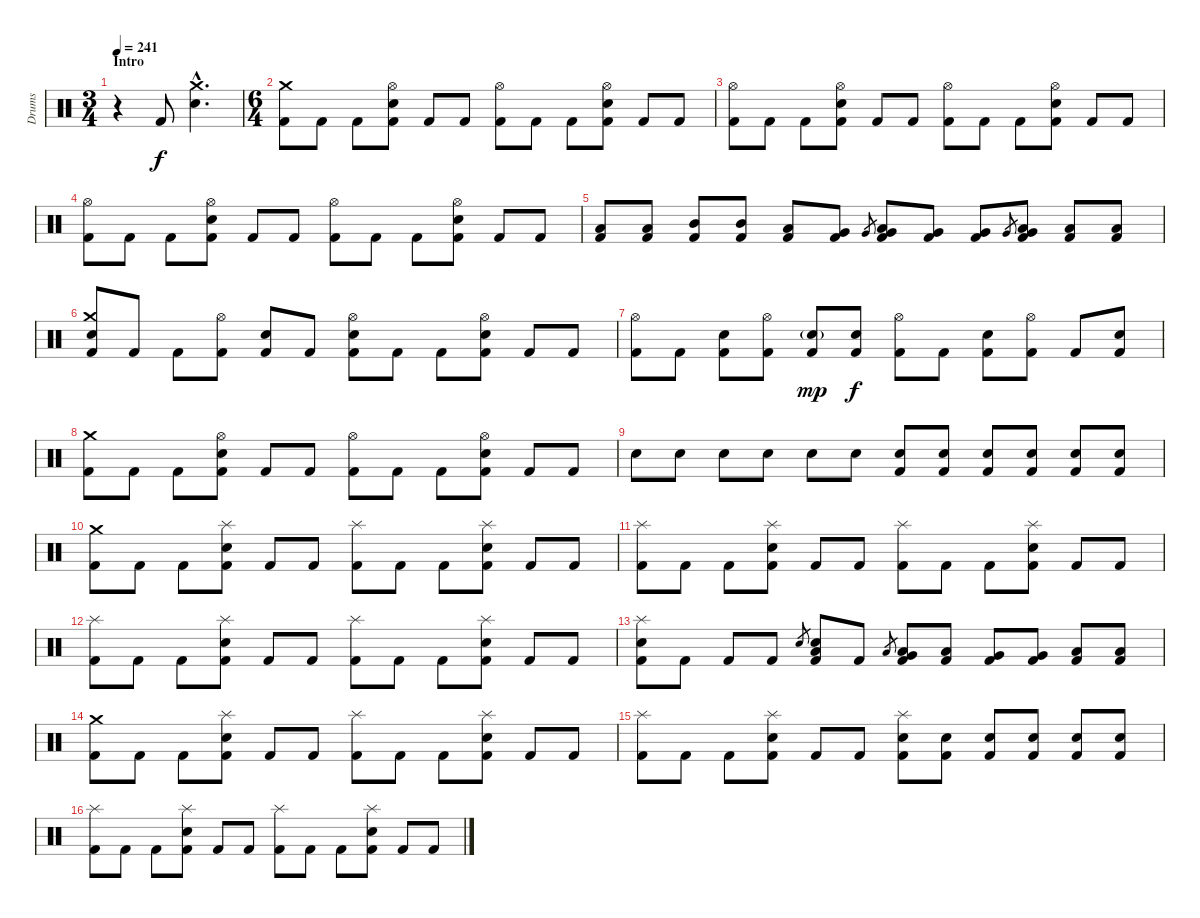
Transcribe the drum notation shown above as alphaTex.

\track ("Drums" "Drums") {instrument percussion}
\staff {score}
\articulation defaults
\ts (3 4)
\section ("" "Intro")
\tempo 241
\clef neutral
\ks c
r.4{dy f} "Kick (hit) 2".8 ("Crash medium (hit)"{hac} "Electric Snare (hit)"{hac}).4{d} |
\ts (6 4)
("Crash medium (hit)" "Kick (hit) 2").8 "Kick (hit) 2".8 "Kick (hit) 2".8 ("Hi-Hat (open)" "Electric Snare (hit)" "Kick (hit) 2").8 "Kick (hit) 2".8 "Kick (hit) 2".8 ("Hi-Hat (open)" "Kick (hit) 2").8 "Kick (hit) 2".8 "Kick (hit) 2".8 ("Hi-Hat (open)" "Electric Snare (hit)" "Kick (hit) 2").8 "Kick (hit) 2".8 "Kick (hit) 2".8 |
("Hi-Hat (open)" "Kick (hit) 2").8 "Kick (hit) 2".8 "Kick (hit) 2".8 ("Hi-Hat (open)" "Electric Snare (hit)" "Kick (hit) 2").8 "Kick (hit) 2".8 "Kick (hit) 2".8 ("Hi-Hat (open)" "Kick (hit) 2").8 "Kick (hit) 2".8 "Kick (hit) 2".8 ("Hi-Hat (open)" "Electric Snare (hit)" "Kick (hit) 2").8 "Kick (hit) 2".8 "Kick (hit) 2".8 |
("Hi-Hat (open)" "Kick (hit) 2").8 "Kick (hit) 2".8 "Kick (hit) 2".8 ("Hi-Hat (open)" "Electric Snare (hit)" "Kick (hit) 2").8 "Kick (hit) 2".8 "Kick (hit) 2".8 ("Hi-Hat (open)" "Kick (hit) 2").8 "Kick (hit) 2".8 "Kick (hit) 2".8 ("Hi-Hat (open)" "Electric Snare (hit)" "Kick (hit) 2").8 "Kick (hit) 2".8 "Kick (hit) 2".8 |
("Low Tom (hit)" "Kick (hit) 2").8 ("Low Tom (hit)" "Kick (hit) 2").8 ("Mid Tom (hit)" "Kick (hit) 2").8 ("Mid Tom (hit)" "Kick (hit) 2").8 ("Low Tom (hit)" "Kick (hit) 2").8 ("Very Low Tom (hit)" "Kick (hit) 2").8 "Very Low Tom (hit)".8{gr} ("Very Low Tom (hit)" "Low Tom (hit)" "Kick (hit) 2").8 ("Very Low Tom (hit)" "Kick (hit) 2").8 ("Very Low Tom (hit)" "Kick (hit) 2").8 "Very Low Tom (hit)".8{gr} ("Very Low Tom (hit)" "Low Floor Tom (hit)" "Kick (hit) 2").8 ("Low Floor Tom (hit)" "Kick (hit) 2").8 ("Low Floor Tom (hit)" "Kick (hit) 2").8 |
("Crash medium (hit)" "Electric Snare (hit)" "Kick (hit) 2").8 "Kick (hit) 2".8 "Kick (hit) 2".8 ("Hi-Hat (open)" "Kick (hit) 2").8 ("Electric Snare (hit)" "Kick (hit) 2").8 "Kick (hit) 2".8 ("Hi-Hat (open)" "Electric Snare (hit)" "Kick (hit) 2").8 "Kick (hit) 2".8 "Kick (hit) 2".8 ("Hi-Hat (open)" "Electric Snare (hit)" "Kick (hit) 2").8 "Kick (hit) 2".8 "Kick (hit) 2".8 |
("Hi-Hat (open)" "Kick (hit) 2").8 "Kick (hit) 2".8 ("Electric Snare (hit)" "Kick (hit) 2").8 ("Hi-Hat (open)" "Kick (hit) 2").8 ("Electric Snare (hit)"{g} "Kick (hit) 2").8{dy mp} ("Electric Snare (hit)" "Kick (hit) 2").8{dy f} ("Hi-Hat (open)" "Kick (hit) 2").8 "Kick (hit) 2".8 ("Electric Snare (hit)" "Kick (hit) 2").8 ("Hi-Hat (open)" "Kick (hit) 2").8 "Kick (hit) 2".8 ("Electric Snare (hit)" "Kick (hit) 2").8 |
("Crash medium (hit)" "Kick (hit) 2").8 "Kick (hit) 2".8 "Kick (hit) 2".8 ("Hi-Hat (open)" "Electric Snare (hit)" "Kick (hit) 2").8 "Kick (hit) 2".8 "Kick (hit) 2".8 ("Hi-Hat (open)" "Kick (hit) 2").8 "Kick (hit) 2".8 "Kick (hit) 2".8 ("Hi-Hat (open)" "Electric Snare (hit)" "Kick (hit) 2").8 "Kick (hit) 2".8 "Kick (hit) 2".8 |
"Electric Snare (hit)".8 "Electric Snare (hit)".8 "Electric Snare (hit)".8 "Electric Snare (hit)".8 "Electric Snare (hit)".8 "Electric Snare (hit)".8 ("Electric Snare (hit)" "Kick (hit) 2").8 ("Electric Snare (hit)" "Kick (hit) 2").8 ("Electric Snare (hit)" "Kick (hit) 2").8 ("Electric Snare (hit)" "Kick (hit) 2").8 ("Electric Snare (hit)" "Kick (hit) 2").8 ("Electric Snare (hit)" "Kick (hit) 2").8 |
("Crash medium (hit)" "Kick (hit) 2").8 "Kick (hit) 2".8 "Kick (hit) 2".8 ("Splash (hit)" "Electric Snare (hit)" "Kick (hit) 2").8 "Kick (hit) 2".8 "Kick (hit) 2".8 ("Splash (hit)" "Kick (hit) 2").8 "Kick (hit) 2".8 "Kick (hit) 2".8 ("Splash (hit)" "Electric Snare (hit)" "Kick (hit) 2").8 "Kick (hit) 2".8 "Kick (hit) 2".8 |
("Splash (hit)" "Kick (hit) 2").8 "Kick (hit) 2".8 "Kick (hit) 2".8 ("Splash (hit)" "Electric Snare (hit)" "Kick (hit) 2").8 "Kick (hit) 2".8 "Kick (hit) 2".8 ("Splash (hit)" "Kick (hit) 2").8 "Kick (hit) 2".8 "Kick (hit) 2".8 ("Splash (hit)" "Electric Snare (hit)" "Kick (hit) 2").8 "Kick (hit) 2".8 "Kick (hit) 2".8 |
("Splash (hit)" "Kick (hit) 2").8 "Kick (hit) 2".8 "Kick (hit) 2".8 ("Splash (hit)" "Electric Snare (hit)" "Kick (hit) 2").8 "Kick (hit) 2".8 "Kick (hit) 2".8 ("Splash (hit)" "Kick (hit) 2").8 "Kick (hit) 2".8 "Kick (hit) 2".8 ("Splash (hit)" "Electric Snare (hit)" "Kick (hit) 2").8 "Kick (hit) 2".8 "Kick (hit) 2".8 |
("Splash (hit)" "Electric Snare (hit)" "Kick (hit) 2").8 "Kick (hit) 2".8 "Kick (hit) 2".8 "Kick (hit) 2".8 "Electric Snare (hit)".8{gr} ("Low Tom (hit)" "Electric Snare (hit)" "Kick (hit) 2").8 "Kick (hit) 2".8 "Low Tom (hit)".8{gr} ("Low Tom (hit)" "Very Low Tom (hit)" "Kick (hit) 2").8 ("Low Tom (hit)" "Kick (hit) 2").8 ("Very Low Tom (hit)" "Kick (hit) 2").8 ("Very Low Tom (hit)" "Kick (hit) 2").8 ("Low Floor Tom (hit)" "Kick (hit) 2").8 ("Low Floor Tom (hit)" "Kick (hit) 2").8 |
("Crash medium (hit)" "Kick (hit) 2").8 "Kick (hit) 2".8 "Kick (hit) 2".8 ("Splash (hit)" "Electric Snare (hit)" "Kick (hit) 2").8 "Kick (hit) 2".8 "Kick (hit) 2".8 ("Splash (hit)" "Kick (hit) 2").8 "Kick (hit) 2".8 "Kick (hit) 2".8 ("Splash (hit)" "Electric Snare (hit)" "Kick (hit) 2").8 "Kick (hit) 2".8 "Kick (hit) 2".8 |
("Splash (hit)" "Kick (hit) 2").8 "Kick (hit) 2".8 "Kick (hit) 2".8 ("Splash (hit)" "Electric Snare (hit)" "Kick (hit) 2").8 "Kick (hit) 2".8 "Kick (hit) 2".8 ("Splash (hit)" "Electric Snare (hit)" "Kick (hit) 2").8 ("Electric Snare (hit)" "Kick (hit) 2").8 ("Electric Snare (hit)" "Kick (hit) 2").8 ("Electric Snare (hit)" "Kick (hit) 2").8 ("Electric Snare (hit)" "Kick (hit) 2").8 ("Electric Snare (hit)" "Kick (hit) 2").8 |
("Splash (hit)" "Kick (hit) 2").8 "Kick (hit) 2".8 "Kick (hit) 2".8 ("Splash (hit)" "Electric Snare (hit)" "Kick (hit) 2").8 "Kick (hit) 2".8 "Kick (hit) 2".8 ("Splash (hit)" "Kick (hit) 2").8 "Kick (hit) 2".8 "Kick (hit) 2".8 ("Splash (hit)" "Electric Snare (hit)" "Kick (hit) 2").8 "Kick (hit) 2".8 "Kick (hit) 2".8
